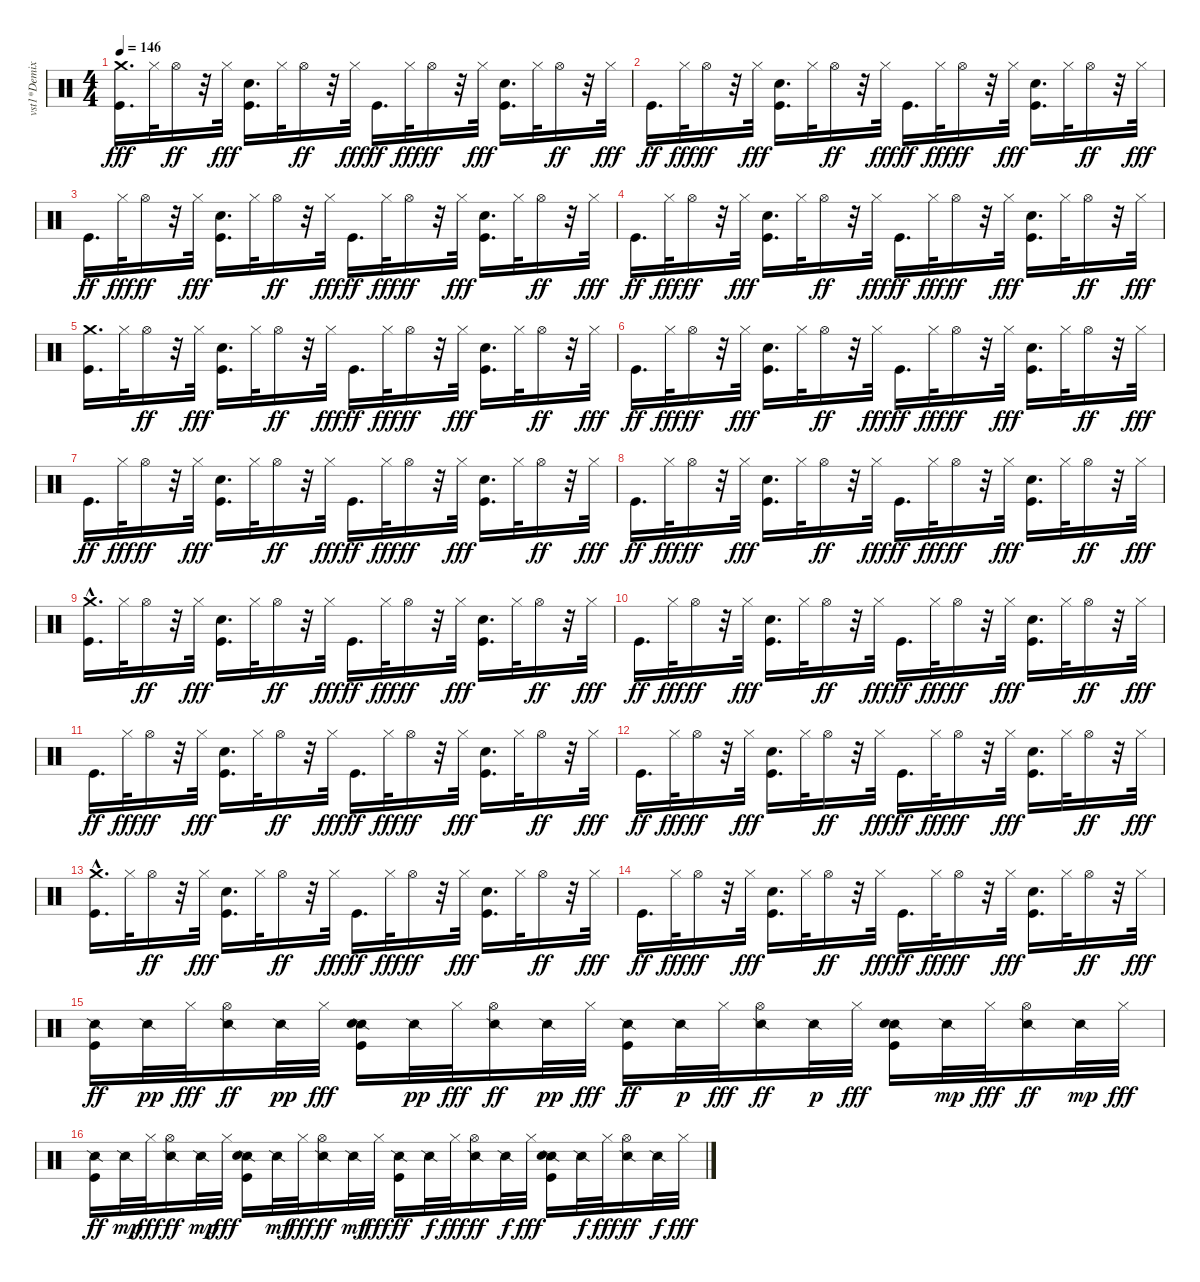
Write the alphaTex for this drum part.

\track ("vst1*Demixed 10" "vst1*Demix") {instrument percussion}
\staff {score}
\articulation defaults
\ts (4 4)
\tempo 146
\clef neutral
\ks c
("Kick (hit)" "Crash medium (hit)").16{d dy fff} "Hi-Hat (closed)".32 "Hi-Hat (open)".16{dy ff} r.32 "Hi-Hat (closed)".32{dy fff} ("Kick (hit)" "Hand Clap (hit)").16{d} "Hi-Hat (closed)".32 "Hi-Hat (open)".16{dy ff} r.32 "Hi-Hat (closed)".32{dy fff} "Kick (hit)".16{d dy ff} "Hi-Hat (closed)".32{dy fff} "Hi-Hat (open)".16{dy ff} r.32 "Hi-Hat (closed)".32{dy fff} ("Kick (hit)" "Hand Clap (hit)").16{d} "Hi-Hat (closed)".32 "Hi-Hat (open)".16{dy ff} r.32 "Hi-Hat (closed)".32{dy fff} |
"Kick (hit)".16{d dy ff} "Hi-Hat (closed)".32{dy fff} "Hi-Hat (open)".16{dy ff} r.32 "Hi-Hat (closed)".32{dy fff} ("Kick (hit)" "Hand Clap (hit)").16{d} "Hi-Hat (closed)".32 "Hi-Hat (open)".16{dy ff} r.32 "Hi-Hat (closed)".32{dy fff} "Kick (hit)".16{d dy ff} "Hi-Hat (closed)".32{dy fff} "Hi-Hat (open)".16{dy ff} r.32 "Hi-Hat (closed)".32{dy fff} ("Kick (hit)" "Hand Clap (hit)").16{d} "Hi-Hat (closed)".32 "Hi-Hat (open)".16{dy ff} r.32 "Hi-Hat (closed)".32{dy fff} |
"Kick (hit)".16{d dy ff} "Hi-Hat (closed)".32{dy fff} "Hi-Hat (open)".16{dy ff} r.32 "Hi-Hat (closed)".32{dy fff} ("Kick (hit)" "Hand Clap (hit)").16{d} "Hi-Hat (closed)".32 "Hi-Hat (open)".16{dy ff} r.32 "Hi-Hat (closed)".32{dy fff} "Kick (hit)".16{d dy ff} "Hi-Hat (closed)".32{dy fff} "Hi-Hat (open)".16{dy ff} r.32 "Hi-Hat (closed)".32{dy fff} ("Kick (hit)" "Hand Clap (hit)").16{d} "Hi-Hat (closed)".32 "Hi-Hat (open)".16{dy ff} r.32 "Hi-Hat (closed)".32{dy fff} |
"Kick (hit)".16{d dy ff} "Hi-Hat (closed)".32{dy fff} "Hi-Hat (open)".16{dy ff} r.32 "Hi-Hat (closed)".32{dy fff} ("Kick (hit)" "Hand Clap (hit)").16{d} "Hi-Hat (closed)".32 "Hi-Hat (open)".16{dy ff} r.32 "Hi-Hat (closed)".32{dy fff} "Kick (hit)".16{d dy ff} "Hi-Hat (closed)".32{dy fff} "Hi-Hat (open)".16{dy ff} r.32 "Hi-Hat (closed)".32{dy fff} ("Kick (hit)" "Hand Clap (hit)").16{d} "Hi-Hat (closed)".32 "Hi-Hat (open)".16{dy ff} r.32 "Hi-Hat (closed)".32{dy fff} |
("Kick (hit)" "Crash medium (hit)").16{d} "Hi-Hat (closed)".32 "Hi-Hat (open)".16{dy ff} r.32 "Hi-Hat (closed)".32{dy fff} ("Kick (hit)" "Hand Clap (hit)").16{d} "Hi-Hat (closed)".32 "Hi-Hat (open)".16{dy ff} r.32 "Hi-Hat (closed)".32{dy fff} "Kick (hit)".16{d dy ff} "Hi-Hat (closed)".32{dy fff} "Hi-Hat (open)".16{dy ff} r.32 "Hi-Hat (closed)".32{dy fff} ("Kick (hit)" "Hand Clap (hit)").16{d} "Hi-Hat (closed)".32 "Hi-Hat (open)".16{dy ff} r.32 "Hi-Hat (closed)".32{dy fff} |
"Kick (hit)".16{d dy ff} "Hi-Hat (closed)".32{dy fff} "Hi-Hat (open)".16{dy ff} r.32 "Hi-Hat (closed)".32{dy fff} ("Kick (hit)" "Hand Clap (hit)").16{d} "Hi-Hat (closed)".32 "Hi-Hat (open)".16{dy ff} r.32 "Hi-Hat (closed)".32{dy fff} "Kick (hit)".16{d dy ff} "Hi-Hat (closed)".32{dy fff} "Hi-Hat (open)".16{dy ff} r.32 "Hi-Hat (closed)".32{dy fff} ("Kick (hit)" "Hand Clap (hit)").16{d} "Hi-Hat (closed)".32 "Hi-Hat (open)".16{dy ff} r.32 "Hi-Hat (closed)".32{dy fff} |
"Kick (hit)".16{d dy ff} "Hi-Hat (closed)".32{dy fff} "Hi-Hat (open)".16{dy ff} r.32 "Hi-Hat (closed)".32{dy fff} ("Kick (hit)" "Hand Clap (hit)").16{d} "Hi-Hat (closed)".32 "Hi-Hat (open)".16{dy ff} r.32 "Hi-Hat (closed)".32{dy fff} "Kick (hit)".16{d dy ff} "Hi-Hat (closed)".32{dy fff} "Hi-Hat (open)".16{dy ff} r.32 "Hi-Hat (closed)".32{dy fff} ("Kick (hit)" "Hand Clap (hit)").16{d} "Hi-Hat (closed)".32 "Hi-Hat (open)".16{dy ff} r.32 "Hi-Hat (closed)".32{dy fff} |
"Kick (hit)".16{d dy ff} "Hi-Hat (closed)".32{dy fff} "Hi-Hat (open)".16{dy ff} r.32 "Hi-Hat (closed)".32{dy fff} ("Kick (hit)" "Hand Clap (hit)").16{d} "Hi-Hat (closed)".32 "Hi-Hat (open)".16{dy ff} r.32 "Hi-Hat (closed)".32{dy fff} "Kick (hit)".16{d dy ff} "Hi-Hat (closed)".32{dy fff} "Hi-Hat (open)".16{dy ff} r.32 "Hi-Hat (closed)".32{dy fff} ("Kick (hit)" "Hand Clap (hit)").16{d} "Hi-Hat (closed)".32 "Hi-Hat (open)".16{dy ff} r.32 "Hi-Hat (closed)".32{dy fff} |
("Kick (hit)" "Crash medium (hit)"{hac}).16{d} "Hi-Hat (closed)".32 "Hi-Hat (open)".16{dy ff} r.32 "Hi-Hat (closed)".32{dy fff} ("Kick (hit)" "Hand Clap (hit)").16{d} "Hi-Hat (closed)".32 "Hi-Hat (open)".16{dy ff} r.32 "Hi-Hat (closed)".32{dy fff} "Kick (hit)".16{d dy ff} "Hi-Hat (closed)".32{dy fff} "Hi-Hat (open)".16{dy ff} r.32 "Hi-Hat (closed)".32{dy fff} ("Kick (hit)" "Hand Clap (hit)").16{d} "Hi-Hat (closed)".32 "Hi-Hat (open)".16{dy ff} r.32 "Hi-Hat (closed)".32{dy fff} |
"Kick (hit)".16{d dy ff} "Hi-Hat (closed)".32{dy fff} "Hi-Hat (open)".16{dy ff} r.32 "Hi-Hat (closed)".32{dy fff} ("Kick (hit)" "Hand Clap (hit)").16{d} "Hi-Hat (closed)".32 "Hi-Hat (open)".16{dy ff} r.32 "Hi-Hat (closed)".32{dy fff} "Kick (hit)".16{d dy ff} "Hi-Hat (closed)".32{dy fff} "Hi-Hat (open)".16{dy ff} r.32 "Hi-Hat (closed)".32{dy fff} ("Kick (hit)" "Hand Clap (hit)").16{d} "Hi-Hat (closed)".32 "Hi-Hat (open)".16{dy ff} r.32 "Hi-Hat (closed)".32{dy fff} |
"Kick (hit)".16{d dy ff} "Hi-Hat (closed)".32{dy fff} "Hi-Hat (open)".16{dy ff} r.32 "Hi-Hat (closed)".32{dy fff} ("Kick (hit)" "Hand Clap (hit)").16{d} "Hi-Hat (closed)".32 "Hi-Hat (open)".16{dy ff} r.32 "Hi-Hat (closed)".32{dy fff} "Kick (hit)".16{d dy ff} "Hi-Hat (closed)".32{dy fff} "Hi-Hat (open)".16{dy ff} r.32 "Hi-Hat (closed)".32{dy fff} ("Kick (hit)" "Hand Clap (hit)").16{d} "Hi-Hat (closed)".32 "Hi-Hat (open)".16{dy ff} r.32 "Hi-Hat (closed)".32{dy fff} |
"Kick (hit)".16{d dy ff} "Hi-Hat (closed)".32{dy fff} "Hi-Hat (open)".16{dy ff} r.32 "Hi-Hat (closed)".32{dy fff} ("Kick (hit)" "Hand Clap (hit)").16{d} "Hi-Hat (closed)".32 "Hi-Hat (open)".16{dy ff} r.32 "Hi-Hat (closed)".32{dy fff} "Kick (hit)".16{d dy ff} "Hi-Hat (closed)".32{dy fff} "Hi-Hat (open)".16{dy ff} r.32 "Hi-Hat (closed)".32{dy fff} ("Kick (hit)" "Hand Clap (hit)").16{d} "Hi-Hat (closed)".32 "Hi-Hat (open)".16{dy ff} r.32 "Hi-Hat (closed)".32{dy fff} |
("Kick (hit)" "Crash medium (hit)"{hac}).16{d} "Hi-Hat (closed)".32 "Hi-Hat (open)".16{dy ff} r.32 "Hi-Hat (closed)".32{dy fff} ("Kick (hit)" "Hand Clap (hit)").16{d} "Hi-Hat (closed)".32 "Hi-Hat (open)".16{dy ff} r.32 "Hi-Hat (closed)".32{dy fff} "Kick (hit)".16{d dy ff} "Hi-Hat (closed)".32{dy fff} "Hi-Hat (open)".16{dy ff} r.32 "Hi-Hat (closed)".32{dy fff} ("Kick (hit)" "Hand Clap (hit)").16{d} "Hi-Hat (closed)".32 "Hi-Hat (open)".16{dy ff} r.32 "Hi-Hat (closed)".32{dy fff} |
"Kick (hit)".16{d dy ff} "Hi-Hat (closed)".32{dy fff} "Hi-Hat (open)".16{dy ff} r.32 "Hi-Hat (closed)".32{dy fff} ("Kick (hit)" "Hand Clap (hit)").16{d} "Hi-Hat (closed)".32 "Hi-Hat (open)".16{dy ff} r.32 "Hi-Hat (closed)".32{dy fff} "Kick (hit)".16{d dy ff} "Hi-Hat (closed)".32{dy fff} "Hi-Hat (open)".16{dy ff} r.32 "Hi-Hat (closed)".32{dy fff} ("Kick (hit)" "Hand Clap (hit)").16{d} "Hi-Hat (closed)".32 "Hi-Hat (open)".16{dy ff} r.32 "Hi-Hat (closed)".32{dy fff} |
("Snare (side stick) 2" "Kick (hit)").16{dy ff} "Snare (side stick) 2".32{dy pp} "Hi-Hat (closed)".32{dy fff} ("Snare (side stick) 2" "Hi-Hat (open)").16{dy ff} "Snare (side stick) 2".32{dy pp} "Hi-Hat (closed)".32{dy fff} ("Snare (side stick) 2" "Kick (hit)" "Hand Clap (hit)").16 "Snare (side stick) 2".32{dy pp} "Hi-Hat (closed)".32{dy fff} ("Snare (side stick) 2" "Hi-Hat (open)").16{dy ff} "Snare (side stick) 2".32{dy pp} "Hi-Hat (closed)".32{dy fff} ("Snare (side stick) 2" "Kick (hit)").16{dy ff} "Snare (side stick) 2".32{dy p} "Hi-Hat (closed)".32{dy fff} ("Snare (side stick) 2" "Hi-Hat (open)").16{dy ff} "Snare (side stick) 2".32{dy p} "Hi-Hat (closed)".32{dy fff} ("Snare (side stick) 2" "Kick (hit)" "Hand Clap (hit)").16 "Snare (side stick) 2".32{dy mp} "Hi-Hat (closed)".32{dy fff} ("Snare (side stick) 2" "Hi-Hat (open)").16{dy ff} "Snare (side stick) 2".32{dy mp} "Hi-Hat (closed)".32{dy fff} |
("Snare (side stick) 2" "Kick (hit)").16{dy ff} "Snare (side stick) 2".32{dy mp} "Hi-Hat (closed)".32{dy fff} ("Snare (side stick) 2" "Hi-Hat (open)").16{dy ff} "Snare (side stick) 2".32{dy mp} "Hi-Hat (closed)".32{dy fff} ("Snare (side stick) 2" "Kick (hit)" "Hand Clap (hit)").16 "Snare (side stick) 2".32{dy mf} "Hi-Hat (closed)".32{dy fff} ("Snare (side stick) 2" "Hi-Hat (open)").16{dy ff} "Snare (side stick) 2".32{dy mf} "Hi-Hat (closed)".32{dy fff} ("Snare (side stick) 2" "Kick (hit)").16{dy ff} "Snare (side stick) 2".32{dy f} "Hi-Hat (closed)".32{dy fff} ("Snare (side stick) 2" "Hi-Hat (open)").16{dy ff} "Snare (side stick) 2".32{dy f} "Hi-Hat (closed)".32{dy fff} ("Snare (side stick) 2" "Kick (hit)" "Hand Clap (hit)").16 "Snare (side stick) 2".32{dy f} "Hi-Hat (closed)".32{dy fff} ("Snare (side stick) 2" "Hi-Hat (open)").16{dy ff} "Snare (side stick) 2".32{dy f} "Hi-Hat (closed)".32{dy fff}
